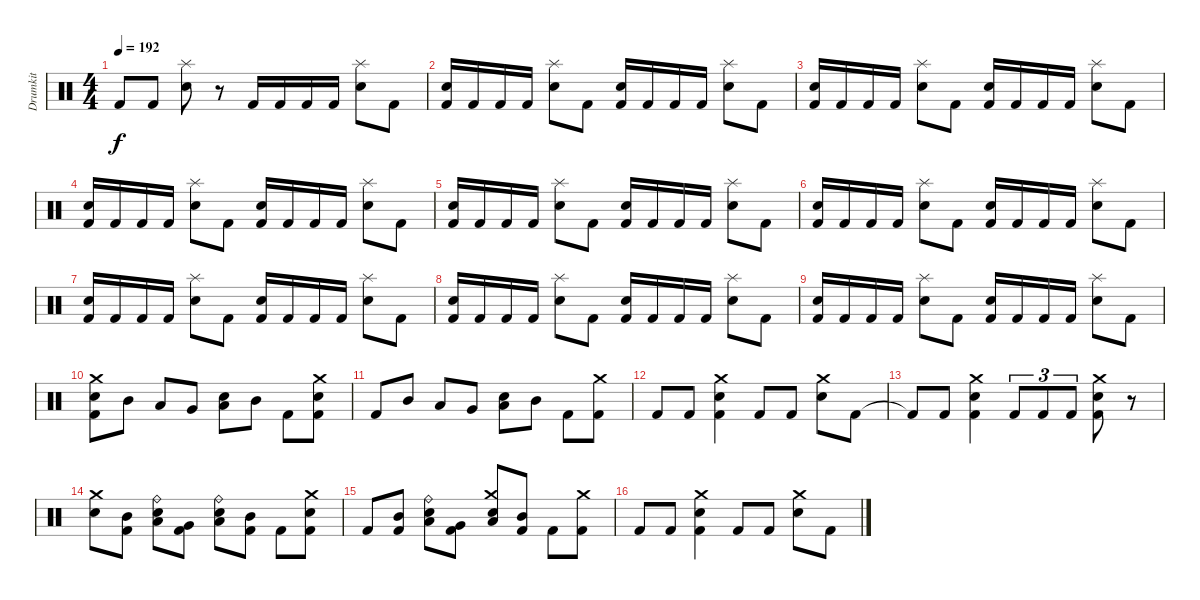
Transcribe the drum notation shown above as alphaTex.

\track ("Drumkit" "Drumkit") {instrument percussion}
\staff {score}
\articulation defaults
\ts (4 4)
\tempo 192
\clef neutral
\ks c "Kick (hit) 2".8{dy f} "Kick (hit) 2".8
("Snare (hit) 2" "Splash (hit)").8 r.8 "Kick (hit) 2".16 "Kick (hit) 2".16 "Kick (hit) 2".16 "Kick (hit) 2".16 ("Snare (hit) 2" "Splash (hit)").8 "Kick (hit) 2".8 |
("Snare (hit) 2" "Kick (hit) 2").16 "Kick (hit) 2".16 "Kick (hit) 2".16 "Kick (hit) 2".16 ("Snare (hit) 2" "Splash (hit)").8 "Kick (hit) 2".8 ("Snare (hit) 2" "Kick (hit) 2").16 "Kick (hit) 2".16 "Kick (hit) 2".16 "Kick (hit) 2".16 ("Snare (hit) 2" "Splash (hit)").8 "Kick (hit) 2".8 |
("Snare (hit) 2" "Kick (hit) 2").16 "Kick (hit) 2".16 "Kick (hit) 2".16 "Kick (hit) 2".16 ("Snare (hit) 2" "Splash (hit)").8 "Kick (hit) 2".8 ("Snare (hit) 2" "Kick (hit) 2").16 "Kick (hit) 2".16 "Kick (hit) 2".16 "Kick (hit) 2".16 ("Snare (hit) 2" "Splash (hit)").8 "Kick (hit) 2".8 |
("Snare (hit) 2" "Kick (hit) 2").16 "Kick (hit) 2".16 "Kick (hit) 2".16 "Kick (hit) 2".16 ("Snare (hit) 2" "Splash (hit)").8 "Kick (hit) 2".8 ("Snare (hit) 2" "Kick (hit) 2").16 "Kick (hit) 2".16 "Kick (hit) 2".16 "Kick (hit) 2".16 ("Snare (hit) 2" "Splash (hit)").8 "Kick (hit) 2".8 |
("Snare (hit) 2" "Kick (hit) 2").16 "Kick (hit) 2".16 "Kick (hit) 2".16 "Kick (hit) 2".16 ("Snare (hit) 2" "Splash (hit)").8 "Kick (hit) 2".8 ("Snare (hit) 2" "Kick (hit) 2").16 "Kick (hit) 2".16 "Kick (hit) 2".16 "Kick (hit) 2".16 ("Snare (hit) 2" "Splash (hit)").8 "Kick (hit) 2".8 |
("Snare (hit) 2" "Kick (hit) 2").16 "Kick (hit) 2".16 "Kick (hit) 2".16 "Kick (hit) 2".16 ("Snare (hit) 2" "Splash (hit)").8 "Kick (hit) 2".8 ("Snare (hit) 2" "Kick (hit) 2").16 "Kick (hit) 2".16 "Kick (hit) 2".16 "Kick (hit) 2".16 ("Snare (hit) 2" "Splash (hit)").8 "Kick (hit) 2".8 |
("Snare (hit) 2" "Kick (hit) 2").16 "Kick (hit) 2".16 "Kick (hit) 2".16 "Kick (hit) 2".16 ("Snare (hit) 2" "Splash (hit)").8 "Kick (hit) 2".8 ("Snare (hit) 2" "Kick (hit) 2").16 "Kick (hit) 2".16 "Kick (hit) 2".16 "Kick (hit) 2".16 ("Snare (hit) 2" "Splash (hit)").8 "Kick (hit) 2".8 |
("Snare (hit) 2" "Kick (hit) 2").16 "Kick (hit) 2".16 "Kick (hit) 2".16 "Kick (hit) 2".16 ("Snare (hit) 2" "Splash (hit)").8 "Kick (hit) 2".8 ("Snare (hit) 2" "Kick (hit) 2").16 "Kick (hit) 2".16 "Kick (hit) 2".16 "Kick (hit) 2".16 ("Snare (hit) 2" "Splash (hit)").8 "Kick (hit) 2".8 |
("Snare (hit) 2" "Kick (hit) 2").16 "Kick (hit) 2".16 "Kick (hit) 2".16 "Kick (hit) 2".16 ("Snare (hit) 2" "Splash (hit)").8 "Kick (hit) 2".8 ("Snare (hit) 2" "Kick (hit) 2").16 "Kick (hit) 2".16 "Kick (hit) 2".16 "Kick (hit) 2".16 ("Snare (hit) 2" "Splash (hit)").8 "Kick (hit) 2".8 |
("Kick (hit) 2" "Snare (hit) 2" "Crash medium (hit)").8 "Mid Tom (hit)".8 "Low Tom (hit)".8 "Very Low Tom (hit)".8 ("Snare (hit) 2" "Low Tom (hit)").8 "Mid Tom (hit)".8 "Kick (hit) 2".8 ("Kick (hit) 2" "Snare (hit) 2" "Crash medium (hit)").8 |
"Kick (hit) 2".8 "Mid Tom (hit)".8 "Low Tom (hit)".8 "Very Low Tom (hit)".8 ("Low Tom (hit)" "Snare (hit) 2").8 "Mid Tom (hit)".8 "Kick (hit) 2".8 ("Kick (hit) 2" "Crash medium (hit)").8 |
"Kick (hit) 2".8 "Kick (hit) 2".8 ("Kick (hit) 2" "Snare (hit) 2" "Crash medium (hit)").4 "Kick (hit) 2".8 "Kick (hit) 2".8 ("Snare (hit) 2" "Crash medium (hit)").8 "Kick (hit) 2".8 |
"Kick (hit) 2"{t}.8 "Kick (hit) 2".8 ("Kick (hit) 2" "Snare (hit) 2" "Crash medium (hit)").4 "Kick (hit) 2".8{tu (3 2)} "Kick (hit) 2".8{tu (3 2)} "Kick (hit) 2".8{tu (3 2)} ("Kick (hit) 2" "Snare (hit) 2" "Crash medium (hit)").8 r.8 |
("Snare (hit) 2" "Crash medium (hit)").8 ("Mid Tom (hit)" "Kick (hit) 2").8 ("Low Tom (hit)" "Snare (hit) 2" "Ride (bell)").8 ("Very Low Tom (hit)" "Kick (hit) 2").8 ("Low Tom (hit)" "Snare (hit) 2" "Ride (bell)").8 ("Mid Tom (hit)" "Kick (hit) 2").8 "Kick (hit) 2".8 ("Kick (hit) 2" "Snare (hit) 2" "Crash medium (hit)").8 |
"Kick (hit) 2".8 ("Kick (hit) 2" "Mid Tom (hit)").8 ("Snare (hit) 2" "Low Tom (hit)" "Ride (bell)").8 ("Very Low Tom (hit)" "Kick (hit) 2").8 ("Low Tom (hit)" "Snare (hit) 2" "Crash medium (hit)").8 ("Mid Tom (hit)" "Kick (hit) 2").8 "Kick (hit) 2".8 ("Kick (hit) 2" "Crash medium (hit)").8 |
"Kick (hit) 2".8 "Kick (hit) 2".8 ("Kick (hit) 2" "Snare (hit) 2" "Crash medium (hit)").4 "Kick (hit) 2".8 "Kick (hit) 2".8 ("Snare (hit) 2" "Crash medium (hit)").8 "Kick (hit) 2".8
